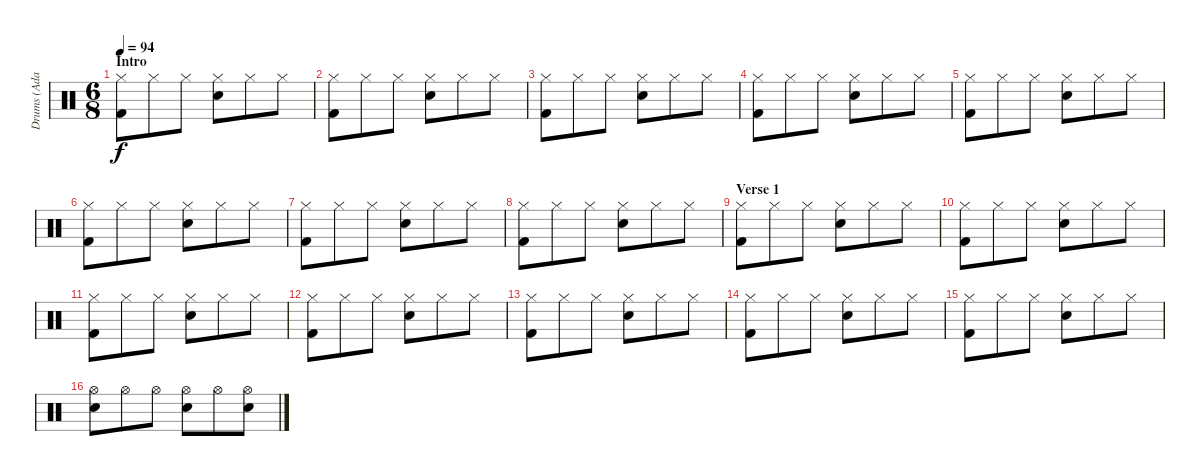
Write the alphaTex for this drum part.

\track ("Drums (Adam)" "Drums (Ada") {instrument percussion}
\staff {score}
\articulation defaults
\ts (6 8)
\section ("" "Intro")
\tempo 94
\clef neutral
\ks c
("Hi-Hat (closed)" "Kick (hit) 2").8{dy f} "Hi-Hat (closed)".8 "Hi-Hat (closed)".8 ("Hi-Hat (closed)" "Snare (hit) 2").8 "Hi-Hat (closed)".8 "Hi-Hat (closed)".8 |
("Hi-Hat (closed)" "Kick (hit) 2").8 "Hi-Hat (closed)".8 "Hi-Hat (closed)".8 ("Hi-Hat (closed)" "Snare (hit) 2").8 "Hi-Hat (closed)".8 "Hi-Hat (closed)".8 |
("Hi-Hat (closed)" "Kick (hit) 2").8 "Hi-Hat (closed)".8 "Hi-Hat (closed)".8 ("Hi-Hat (closed)" "Snare (hit) 2").8 "Hi-Hat (closed)".8 "Hi-Hat (closed)".8 |
("Hi-Hat (closed)" "Kick (hit) 2").8 "Hi-Hat (closed)".8 "Hi-Hat (closed)".8 ("Hi-Hat (closed)" "Snare (hit) 2").8 "Hi-Hat (closed)".8 "Hi-Hat (closed)".8 |
("Hi-Hat (closed)" "Kick (hit) 2").8 "Hi-Hat (closed)".8 "Hi-Hat (closed)".8 ("Hi-Hat (closed)" "Snare (hit) 2").8 "Hi-Hat (closed)".8 "Hi-Hat (closed)".8 |
("Hi-Hat (closed)" "Kick (hit) 2").8 "Hi-Hat (closed)".8 "Hi-Hat (closed)".8 ("Hi-Hat (closed)" "Snare (hit) 2").8 "Hi-Hat (closed)".8 "Hi-Hat (closed)".8 |
("Hi-Hat (closed)" "Kick (hit) 2").8 "Hi-Hat (closed)".8 "Hi-Hat (closed)".8 ("Hi-Hat (closed)" "Snare (hit) 2").8 "Hi-Hat (closed)".8 "Hi-Hat (closed)".8 |
("Hi-Hat (closed)" "Kick (hit) 2").8 "Hi-Hat (closed)".8 "Hi-Hat (closed)".8 ("Hi-Hat (closed)" "Snare (hit) 2").8 "Hi-Hat (closed)".8 "Hi-Hat (closed)".8 |
\section ("" "Verse 1")
("Hi-Hat (closed)" "Kick (hit) 2").8 "Hi-Hat (closed)".8 "Hi-Hat (closed)".8 ("Hi-Hat (closed)" "Snare (hit) 2").8 "Hi-Hat (closed)".8 "Hi-Hat (closed)".8 |
("Hi-Hat (closed)" "Kick (hit) 2").8 "Hi-Hat (closed)".8 "Hi-Hat (closed)".8 ("Hi-Hat (closed)" "Snare (hit) 2").8 "Hi-Hat (closed)".8 "Hi-Hat (closed)".8 |
("Hi-Hat (closed)" "Kick (hit) 2").8 "Hi-Hat (closed)".8 "Hi-Hat (closed)".8 ("Hi-Hat (closed)" "Snare (hit) 2").8 "Hi-Hat (closed)".8 "Hi-Hat (closed)".8 |
("Hi-Hat (closed)" "Kick (hit) 2").8 "Hi-Hat (closed)".8 "Hi-Hat (closed)".8 ("Hi-Hat (closed)" "Snare (hit) 2").8 "Hi-Hat (closed)".8 "Hi-Hat (closed)".8 |
("Hi-Hat (closed)" "Kick (hit) 2").8 "Hi-Hat (closed)".8 "Hi-Hat (closed)".8 ("Hi-Hat (closed)" "Snare (hit) 2").8 "Hi-Hat (closed)".8 "Hi-Hat (closed)".8 |
("Hi-Hat (closed)" "Kick (hit) 2").8 "Hi-Hat (closed)".8 "Hi-Hat (closed)".8 ("Hi-Hat (closed)" "Snare (hit) 2").8 "Hi-Hat (closed)".8 "Hi-Hat (closed)".8 |
("Hi-Hat (closed)" "Kick (hit) 2").8 "Hi-Hat (closed)".8 "Hi-Hat (closed)".8 ("Hi-Hat (closed)" "Snare (hit) 2").8 "Hi-Hat (closed)".8 "Hi-Hat (closed)".8 |
("Hi-Hat (open)" "Snare (hit) 2").8 "Hi-Hat (open)".8 "Hi-Hat (open)".8 ("Hi-Hat (open)" "Snare (hit) 2").8 "Hi-Hat (open)".8 ("Hi-Hat (open)" "Snare (hit) 2").8
